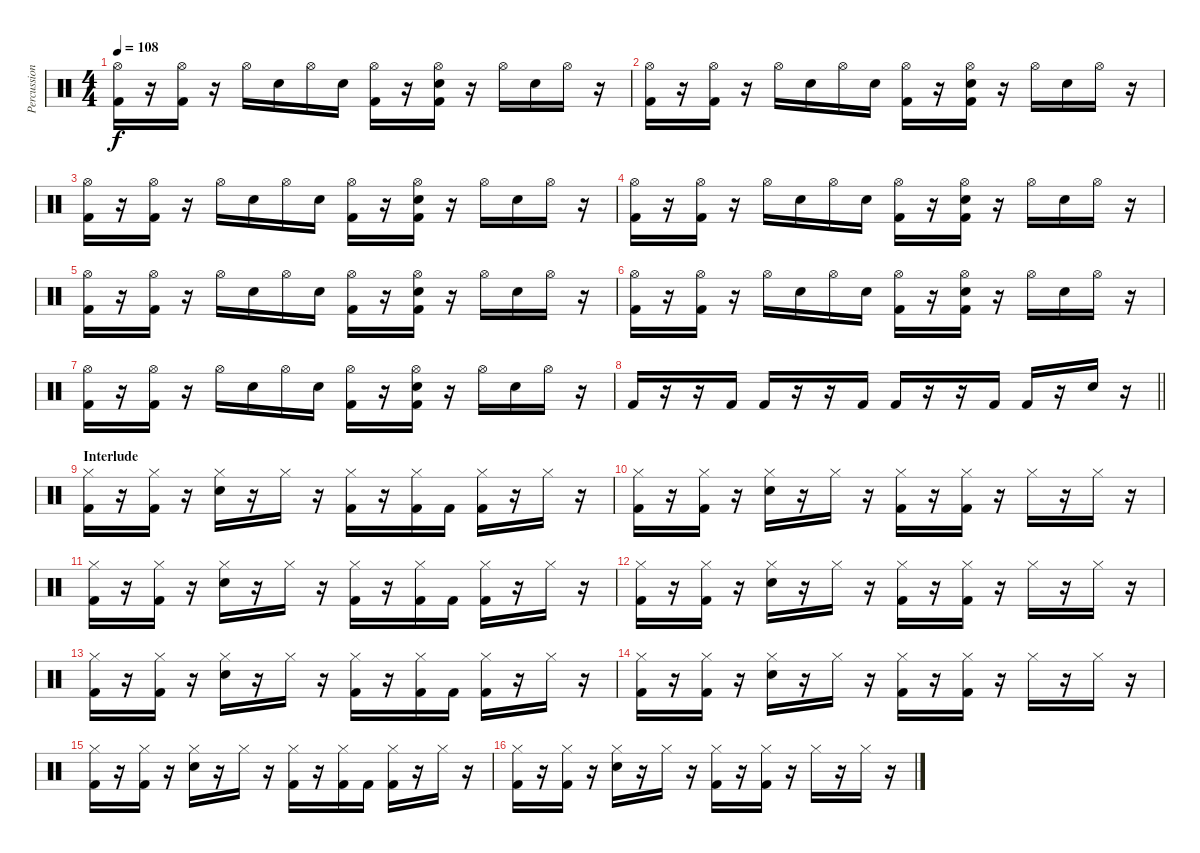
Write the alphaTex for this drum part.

\track ("Percussion" "Percussion") {instrument percussion}
\staff {score}
\articulation defaults
\ts (4 4)
\tempo 108
\clef neutral
\ks c
("Hi-Hat (open)" "Kick (hit) 2").16{dy f} r.16 ("Hi-Hat (open)" "Kick (hit) 2").16 r.16 "Hi-Hat (open)".16 "Snare (hit) 2".16 "Hi-Hat (open)".16 "Snare (hit) 2".16 ("Hi-Hat (open)" "Kick (hit) 2").16 r.16 ("Hi-Hat (open)" "Snare (hit) 2" "Kick (hit) 2").16 r.16 "Hi-Hat (open)".16 "Snare (hit) 2".16 "Hi-Hat (open)".16 r.16 |
("Hi-Hat (open)" "Kick (hit) 2").16 r.16 ("Hi-Hat (open)" "Kick (hit) 2").16 r.16 "Hi-Hat (open)".16 "Snare (hit) 2".16 "Hi-Hat (open)".16 "Snare (hit) 2".16 ("Hi-Hat (open)" "Kick (hit) 2").16 r.16 ("Hi-Hat (open)" "Snare (hit) 2" "Kick (hit) 2").16 r.16 "Hi-Hat (open)".16 "Snare (hit) 2".16 "Hi-Hat (open)".16 r.16 |
("Hi-Hat (open)" "Kick (hit) 2").16 r.16 ("Hi-Hat (open)" "Kick (hit) 2").16 r.16 "Hi-Hat (open)".16 "Snare (hit) 2".16 "Hi-Hat (open)".16 "Snare (hit) 2".16 ("Hi-Hat (open)" "Kick (hit) 2").16 r.16 ("Hi-Hat (open)" "Snare (hit) 2" "Kick (hit) 2").16 r.16 "Hi-Hat (open)".16 "Snare (hit) 2".16 "Hi-Hat (open)".16 r.16 |
("Hi-Hat (open)" "Kick (hit) 2").16 r.16 ("Hi-Hat (open)" "Kick (hit) 2").16 r.16 "Hi-Hat (open)".16 "Snare (hit) 2".16 "Hi-Hat (open)".16 "Snare (hit) 2".16 ("Hi-Hat (open)" "Kick (hit) 2").16 r.16 ("Hi-Hat (open)" "Snare (hit) 2" "Kick (hit) 2").16 r.16 "Hi-Hat (open)".16 "Snare (hit) 2".16 "Hi-Hat (open)".16 r.16 |
("Hi-Hat (open)" "Kick (hit) 2").16 r.16 ("Hi-Hat (open)" "Kick (hit) 2").16 r.16 "Hi-Hat (open)".16 "Snare (hit) 2".16 "Hi-Hat (open)".16 "Snare (hit) 2".16 ("Hi-Hat (open)" "Kick (hit) 2").16 r.16 ("Hi-Hat (open)" "Snare (hit) 2" "Kick (hit) 2").16 r.16 "Hi-Hat (open)".16 "Snare (hit) 2".16 "Hi-Hat (open)".16 r.16 |
("Hi-Hat (open)" "Kick (hit) 2").16 r.16 ("Hi-Hat (open)" "Kick (hit) 2").16 r.16 "Hi-Hat (open)".16 "Snare (hit) 2".16 "Hi-Hat (open)".16 "Snare (hit) 2".16 ("Hi-Hat (open)" "Kick (hit) 2").16 r.16 ("Hi-Hat (open)" "Snare (hit) 2" "Kick (hit) 2").16 r.16 "Hi-Hat (open)".16 "Snare (hit) 2".16 "Hi-Hat (open)".16 r.16 |
("Hi-Hat (open)" "Kick (hit) 2").16 r.16 ("Hi-Hat (open)" "Kick (hit) 2").16 r.16 "Hi-Hat (open)".16 "Snare (hit) 2".16 "Hi-Hat (open)".16 "Snare (hit) 2".16 ("Hi-Hat (open)" "Kick (hit) 2").16 r.16 ("Hi-Hat (open)" "Snare (hit) 2" "Kick (hit) 2").16 r.16 "Hi-Hat (open)".16 "Snare (hit) 2".16 "Hi-Hat (open)".16 r.16 |
\barLineRight lightlight "Kick (hit) 2".16
r.16 r.16 "Kick (hit) 2".16 "Kick (hit) 2".16 r.16 r.16 "Kick (hit) 2".16 "Kick (hit) 2".16 r.16 r.16 "Kick (hit) 2".16 "Kick (hit) 2".16 r.16 "Snare (hit) 2".16 r.16 |
\section ("" "Interlude")
("Hi-Hat (closed)" "Kick (hit) 2").16 r.16 ("Hi-Hat (closed)" "Kick (hit) 2").16 r.16 ("Hi-Hat (closed)" "Snare (hit) 2").16 r.16 "Hi-Hat (closed)".16 r.16 ("Hi-Hat (closed)" "Kick (hit) 2").16 r.16 ("Hi-Hat (closed)" "Kick (hit) 2").16 "Kick (hit) 2".16 ("Hi-Hat (closed)" "Kick (hit) 2").16 r.16 "Hi-Hat (closed)".16 r.16 |
("Hi-Hat (closed)" "Kick (hit) 2").16 r.16 ("Hi-Hat (closed)" "Kick (hit) 2").16 r.16 ("Hi-Hat (closed)" "Snare (hit) 2").16 r.16 "Hi-Hat (closed)".16 r.16 ("Hi-Hat (closed)" "Kick (hit) 2").16 r.16 ("Hi-Hat (closed)" "Kick (hit) 2").16 r.16 "Hi-Hat (closed)".16 r.16 "Hi-Hat (closed)".16 r.16 |
("Hi-Hat (closed)" "Kick (hit) 2").16 r.16 ("Hi-Hat (closed)" "Kick (hit) 2").16 r.16 ("Hi-Hat (closed)" "Snare (hit) 2").16 r.16 "Hi-Hat (closed)".16 r.16 ("Hi-Hat (closed)" "Kick (hit) 2").16 r.16 ("Hi-Hat (closed)" "Kick (hit) 2").16 "Kick (hit) 2".16 ("Hi-Hat (closed)" "Kick (hit) 2").16 r.16 "Hi-Hat (closed)".16 r.16 |
("Hi-Hat (closed)" "Kick (hit) 2").16 r.16 ("Hi-Hat (closed)" "Kick (hit) 2").16 r.16 ("Hi-Hat (closed)" "Snare (hit) 2").16 r.16 "Hi-Hat (closed)".16 r.16 ("Hi-Hat (closed)" "Kick (hit) 2").16 r.16 ("Hi-Hat (closed)" "Kick (hit) 2").16 r.16 "Hi-Hat (closed)".16 r.16 "Hi-Hat (closed)".16 r.16 |
("Hi-Hat (closed)" "Kick (hit) 2").16 r.16 ("Hi-Hat (closed)" "Kick (hit) 2").16 r.16 ("Hi-Hat (closed)" "Snare (hit) 2").16 r.16 "Hi-Hat (closed)".16 r.16 ("Hi-Hat (closed)" "Kick (hit) 2").16 r.16 ("Hi-Hat (closed)" "Kick (hit) 2").16 "Kick (hit) 2".16 ("Hi-Hat (closed)" "Kick (hit) 2").16 r.16 "Hi-Hat (closed)".16 r.16 |
("Hi-Hat (closed)" "Kick (hit) 2").16 r.16 ("Hi-Hat (closed)" "Kick (hit) 2").16 r.16 ("Hi-Hat (closed)" "Snare (hit) 2").16 r.16 "Hi-Hat (closed)".16 r.16 ("Hi-Hat (closed)" "Kick (hit) 2").16 r.16 ("Hi-Hat (closed)" "Kick (hit) 2").16 r.16 "Hi-Hat (closed)".16 r.16 "Hi-Hat (closed)".16 r.16 |
("Hi-Hat (closed)" "Kick (hit) 2").16 r.16 ("Hi-Hat (closed)" "Kick (hit) 2").16 r.16 ("Hi-Hat (closed)" "Snare (hit) 2").16 r.16 "Hi-Hat (closed)".16 r.16 ("Hi-Hat (closed)" "Kick (hit) 2").16 r.16 ("Hi-Hat (closed)" "Kick (hit) 2").16 "Kick (hit) 2".16 ("Hi-Hat (closed)" "Kick (hit) 2").16 r.16 "Hi-Hat (closed)".16 r.16 |
("Hi-Hat (closed)" "Kick (hit) 2").16 r.16 ("Hi-Hat (closed)" "Kick (hit) 2").16 r.16 ("Hi-Hat (closed)" "Snare (hit) 2").16 r.16 "Hi-Hat (closed)".16 r.16 ("Hi-Hat (closed)" "Kick (hit) 2").16 r.16 ("Hi-Hat (closed)" "Kick (hit) 2").16 r.16 "Hi-Hat (closed)".16 r.16 "Hi-Hat (closed)".16 r.16
